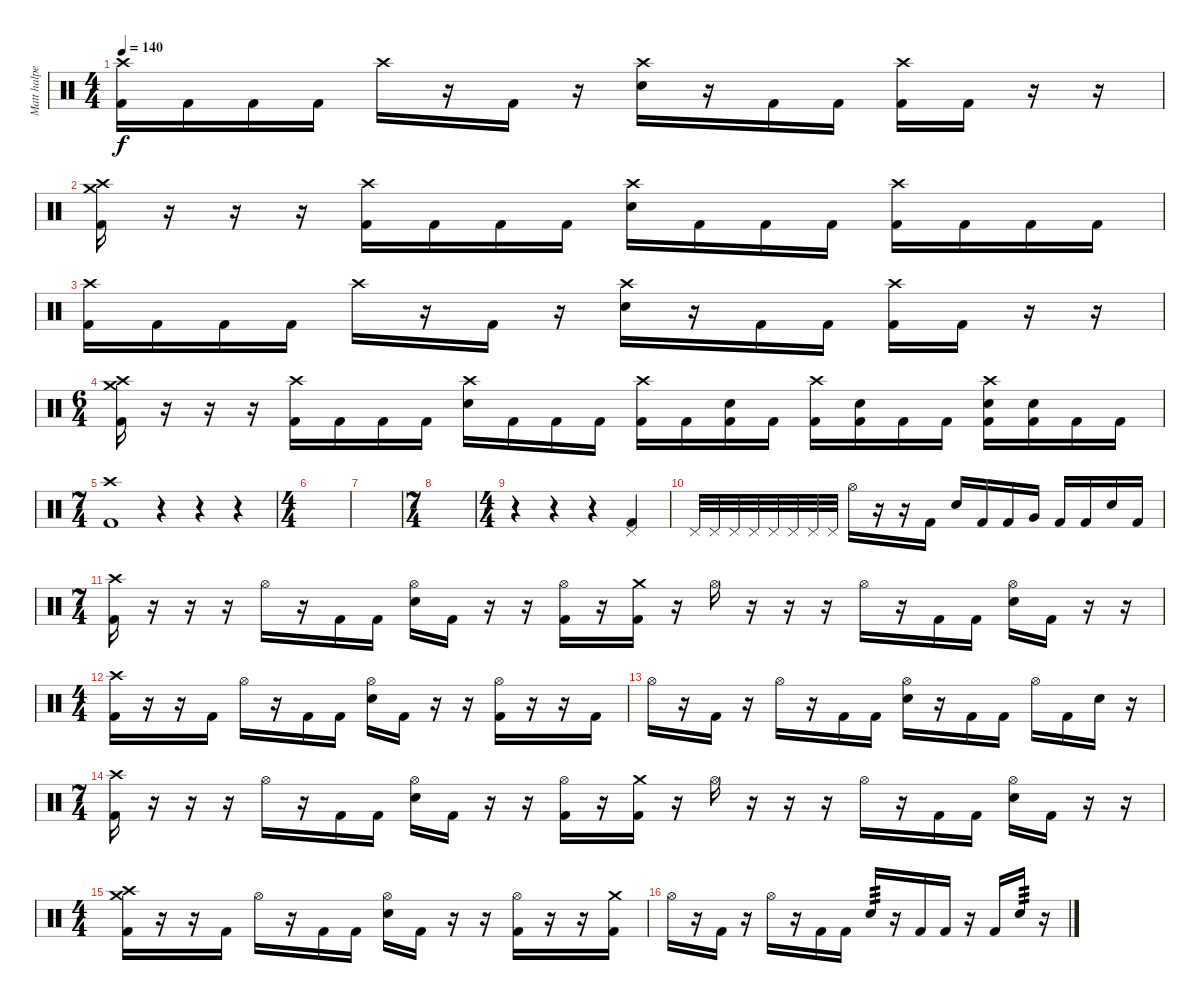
\track ("Matt halpern" "Matt halpe") {instrument percussion}
\staff {score}
\articulation defaults
\ts (4 4)
\tempo 140
\clef neutral
\ks c
("Crash high (hit)" "Kick (hit) 2").16{dy f} "Kick (hit) 2".16 "Kick (hit) 2".16 "Kick (hit) 2".16 "Crash high (hit)".16 r.16 "Kick (hit) 2".16 r.16 ("Crash high (hit)" "Electric Snare (hit)").16 r.16 "Kick (hit) 2".16 "Kick (hit) 2".16 ("Crash high (hit)" "Kick (hit) 2").16 "Kick (hit) 2".16 r.16 r.16 |
("Crash medium (hit)" "Crash high (hit)" "Kick (hit) 2").16 r.16 r.16 r.16 ("Crash high (hit)" "Kick (hit) 2").16 "Kick (hit) 2".16 "Kick (hit) 2".16 "Kick (hit) 2".16 ("Crash high (hit)" "Electric Snare (hit)").16 "Kick (hit) 2".16 "Kick (hit) 2".16 "Kick (hit) 2".16 ("Crash high (hit)" "Kick (hit) 2").16 "Kick (hit) 2".16 "Kick (hit) 2".16 "Kick (hit) 2".16 |
("Crash high (hit)" "Kick (hit) 2").16 "Kick (hit) 2".16 "Kick (hit) 2".16 "Kick (hit) 2".16 "Crash high (hit)".16 r.16 "Kick (hit) 2".16 r.16 ("Crash high (hit)" "Electric Snare (hit)").16 r.16 "Kick (hit) 2".16 "Kick (hit) 2".16 ("Crash high (hit)" "Kick (hit) 2").16 "Kick (hit) 2".16 r.16 r.16 |
\ts (6 4)
("Crash medium (hit)" "Crash high (hit)" "Kick (hit) 2").16 r.16 r.16 r.16 ("Crash high (hit)" "Kick (hit) 2").16 "Kick (hit) 2".16 "Kick (hit) 2".16 "Kick (hit) 2".16 ("Crash high (hit)" "Electric Snare (hit)").16 "Kick (hit) 2".16 "Kick (hit) 2".16 "Kick (hit) 2".16 ("Crash high (hit)" "Kick (hit) 2").16 "Kick (hit) 2".16 ("Electric Snare (hit)" "Kick (hit) 2").16 "Kick (hit) 2".16 ("Crash high (hit)" "Kick (hit) 2").16 ("Electric Snare (hit)" "Kick (hit) 2").16 "Kick (hit) 2".16 "Kick (hit) 2".16 ("Crash high (hit)" "Electric Snare (hit)" "Kick (hit) 2").16 ("Electric Snare (hit)" "Kick (hit) 2").16 "Kick (hit) 2".16 "Kick (hit) 2".16 |
\ts (7 4)
("Crash high (hit)" "Kick (hit) 2").1 r.4 r.4 r.4 |
\ts (4 4)
|
|
\ts (7 4)
|
\ts (4 4)
r.4 r.4 r.4 ("Pedal Hi-Hat (hit)" "Kick (hit) 2").4 |
"Pedal Hi-Hat (hit)".32 "Pedal Hi-Hat (hit)".32 "Pedal Hi-Hat (hit)".32 "Pedal Hi-Hat (hit)".32 "Pedal Hi-Hat (hit)".32 "Pedal Hi-Hat (hit)".32 "Pedal Hi-Hat (hit)".32 "Pedal Hi-Hat (hit)".32 "Hi-Hat (open)".16 r.16 r.16 "Kick (hit) 2".16 "Electric Snare (hit)".16 "Kick (hit) 2".16 "Kick (hit) 2".16 "Very Low Tom (hit)".16 "Kick (hit) 2".16 "Kick (hit) 2".16 "Electric Snare (hit)".16 "Kick (hit) 2".16 |
\ts (7 4)
("Crash high (hit)" "Kick (hit) 2").16 r.16 r.16 r.16 "Hi-Hat (open)".16 r.16 "Kick (hit) 2".16 "Kick (hit) 2".16 ("Hi-Hat (open)" "Electric Snare (hit)").16 "Kick (hit) 2".16 r.16 r.16 ("Hi-Hat (open)" "Kick (hit) 2").16 r.16 ("Crash medium (hit)" "Kick (hit) 2").16 r.16 "Hi-Hat (open)".16 r.16 r.16 r.16 "Hi-Hat (open)".16 r.16 "Kick (hit) 2".16 "Kick (hit) 2".16 ("Hi-Hat (open)" "Electric Snare (hit)").16 "Kick (hit) 2".16 r.16 r.16 |
\ts (4 4)
("Crash high (hit)" "Kick (hit) 2").16 r.16 r.16 "Kick (hit) 2".16 "Hi-Hat (open)".16 r.16 "Kick (hit) 2".16 "Kick (hit) 2".16 ("Hi-Hat (open)" "Electric Snare (hit)").16 "Kick (hit) 2".16 r.16 r.16 ("Hi-Hat (open)" "Kick (hit) 2").16 r.16 r.16 "Kick (hit) 2".16 |
"Hi-Hat (open)".16 r.16 "Kick (hit) 2".16 r.16 "Hi-Hat (open)".16 r.16 "Kick (hit) 2".16 "Kick (hit) 2".16 ("Hi-Hat (open)" "Electric Snare (hit)").16 r.16 "Kick (hit) 2".16 "Kick (hit) 2".16 "Hi-Hat (open)".16 "Kick (hit) 2".16 "Electric Snare (hit)".16 r.16 |
\ts (7 4)
("Crash high (hit)" "Kick (hit) 2").16 r.16 r.16 r.16 "Hi-Hat (open)".16 r.16 "Kick (hit) 2".16 "Kick (hit) 2".16 ("Hi-Hat (open)" "Electric Snare (hit)").16 "Kick (hit) 2".16 r.16 r.16 ("Hi-Hat (open)" "Kick (hit) 2").16 r.16 ("Crash medium (hit)" "Kick (hit) 2").16 r.16 "Hi-Hat (open)".16 r.16 r.16 r.16 "Hi-Hat (open)".16 r.16 "Kick (hit) 2".16 "Kick (hit) 2".16 ("Hi-Hat (open)" "Electric Snare (hit)").16 "Kick (hit) 2".16 r.16 r.16 |
\ts (4 4)
("Crash high (hit)" "Crash medium (hit)" "Kick (hit) 2").16 r.16 r.16 "Kick (hit) 2".16 "Hi-Hat (open)".16 r.16 "Kick (hit) 2".16 "Kick (hit) 2".16 ("Hi-Hat (open)" "Electric Snare (hit)").16 "Kick (hit) 2".16 r.16 r.16 ("Hi-Hat (open)" "Kick (hit) 2").16 r.16 r.16 ("Crash medium (hit)" "Kick (hit) 2").16 |
"Hi-Hat (open)".16 r.16 "Kick (hit) 2".16 r.16 "Hi-Hat (open)".16 r.16 "Kick (hit) 2".16 "Kick (hit) 2".16 "Electric Snare (hit)".16{tp 3} r.16 "Kick (hit) 2".16 "Kick (hit) 2".16 r.16 "Kick (hit) 2".16 "Electric Snare (hit)".16{tp 3} r.16
